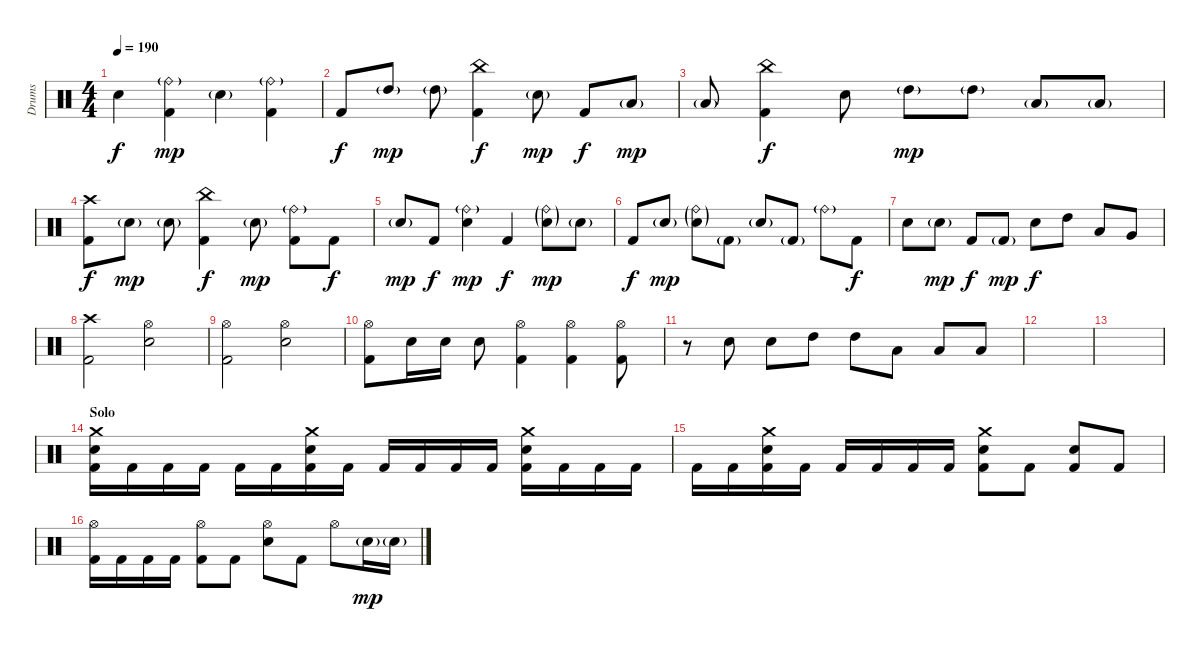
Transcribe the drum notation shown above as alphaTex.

\track ("Drums" "Drums") {instrument percussion}
\staff {score}
\articulation defaults
\ts (4 4)
\tempo 190
\clef neutral
\ks c "Snare (hit) 2".4{dy f}
("Ride (bell)"{g} "Kick (hit) 2").4{dy mp} "Snare (hit) 2"{g}.4 ("Ride (bell)"{g} "Kick (hit) 2").4 |
"Kick (hit) 2".8{dy f} "High Tom (hit)"{g}.8{dy mp} "High Tom (hit)"{g}.8 ("China (hit)" "Kick (hit) 2").4{dy f} "Snare (hit) 2"{g}.8{dy mp} "Kick (hit) 2".8{dy f} "Low Tom (hit)"{g}.8{dy mp} |
"Low Tom (hit)"{g}.8 ("China (hit)" "Kick (hit) 2").4{dy f} "Snare (hit) 2".8 "High Tom (hit)"{g}.8{dy mp} "High Tom (hit)"{g}.8 "Low Tom (hit)"{g}.8 "Low Tom (hit)"{g}.8 |
("Crash high (hit)" "Kick (hit) 2").8{dy f} "Snare (hit) 2"{g}.8{dy mp} "Snare (hit) 2"{g}.8 ("China (hit)" "Kick (hit) 2").4{dy f} "Snare (hit) 2"{g}.8{dy mp} ("Ride (bell)"{g} "Kick (hit) 2").8 "Kick (hit) 2".8{dy f} |
"Snare (hit) 2"{g}.8{dy mp} "Kick (hit) 2".8{dy f} ("Ride (bell)"{g} "Snare (hit) 2").4{dy mp} "Kick (hit) 2".4{dy f} ("Ride (bell)"{g} "Snare (hit) 2"{g}).8{dy mp} "Snare (hit) 2"{g}.8 |
"Kick (hit) 2".8{dy f} "Snare (hit) 2"{g}.8{dy mp} ("Ride (bell)"{g} "Snare (hit) 2"{g}).8 "Kick (hit) 2"{g}.8 "Snare (hit) 2"{g}.8 "Kick (hit) 2"{g}.8 "Ride (bell)"{g}.8 "Kick (hit) 2".8{dy f} |
"Snare (hit) 2".8 "Snare (hit) 2"{g}.8{dy mp} "Kick (hit) 2".8{dy f} "Kick (hit) 2"{g}.8{dy mp} "Snare (hit) 2".8{dy f} "High Tom (hit)".8 "Low Tom (hit)".8 "Very Low Tom (hit)".8 |
("Crash high (hit)" "Kick (hit) 2").2 ("Hi-Hat (open)" "Snare (hit) 2").2 |
("Hi-Hat (open)" "Kick (hit) 2").2 ("Hi-Hat (open)" "Snare (hit) 2").2 |
("Hi-Hat (open)" "Kick (hit) 2").8 "Snare (hit) 2".16 "Snare (hit) 2".16 "Snare (hit) 2".8 ("Hi-Hat (open)" "Kick (hit) 2").4 ("Hi-Hat (open)" "Kick (hit) 2").4 ("Hi-Hat (open)" "Kick (hit) 2").8 |
r.8 "Snare (hit) 2".8 "Snare (hit) 2".8 "High Tom (hit)".8 "High Tom (hit)".8 "Low Tom (hit)".8 "Low Tom (hit)".8 "Low Tom (hit)".8 |
|
|
\section ("" "Solo")
("Crash medium (hit)" "Snare (hit) 2" "Kick (hit) 2").16 "Kick (hit) 2".16 "Kick (hit) 2".16 "Kick (hit) 2".16 "Kick (hit) 2".16 "Kick (hit) 2".16 ("Crash medium (hit)" "Snare (hit) 2" "Kick (hit) 2").16 "Kick (hit) 2".16 "Kick (hit) 2".16 "Kick (hit) 2".16 "Kick (hit) 2".16 "Kick (hit) 2".16 ("Crash medium (hit)" "Snare (hit) 2" "Kick (hit) 2").16 "Kick (hit) 2".16 "Kick (hit) 2".16 "Kick (hit) 2".16 |
"Kick (hit) 2".16 "Kick (hit) 2".16 ("Crash medium (hit)" "Snare (hit) 2" "Kick (hit) 2").16 "Kick (hit) 2".16 "Kick (hit) 2".16 "Kick (hit) 2".16 "Kick (hit) 2".16 "Kick (hit) 2".16 ("Crash medium (hit)" "Snare (hit) 2" "Kick (hit) 2").8 "Kick (hit) 2".8 ("Snare (hit) 2" "Kick (hit) 2").8 "Kick (hit) 2".8 |
("Hi-Hat (open)" "Kick (hit) 2").16 "Kick (hit) 2".16 "Kick (hit) 2".16 "Kick (hit) 2".16 ("Hi-Hat (open)" "Kick (hit) 2").8 "Kick (hit) 2".8 ("Hi-Hat (open)" "Snare (hit) 2").8 "Kick (hit) 2".8 "Hi-Hat (open)".8 "Snare (hit) 2"{g}.16{dy mp} "Snare (hit) 2"{g}.16
